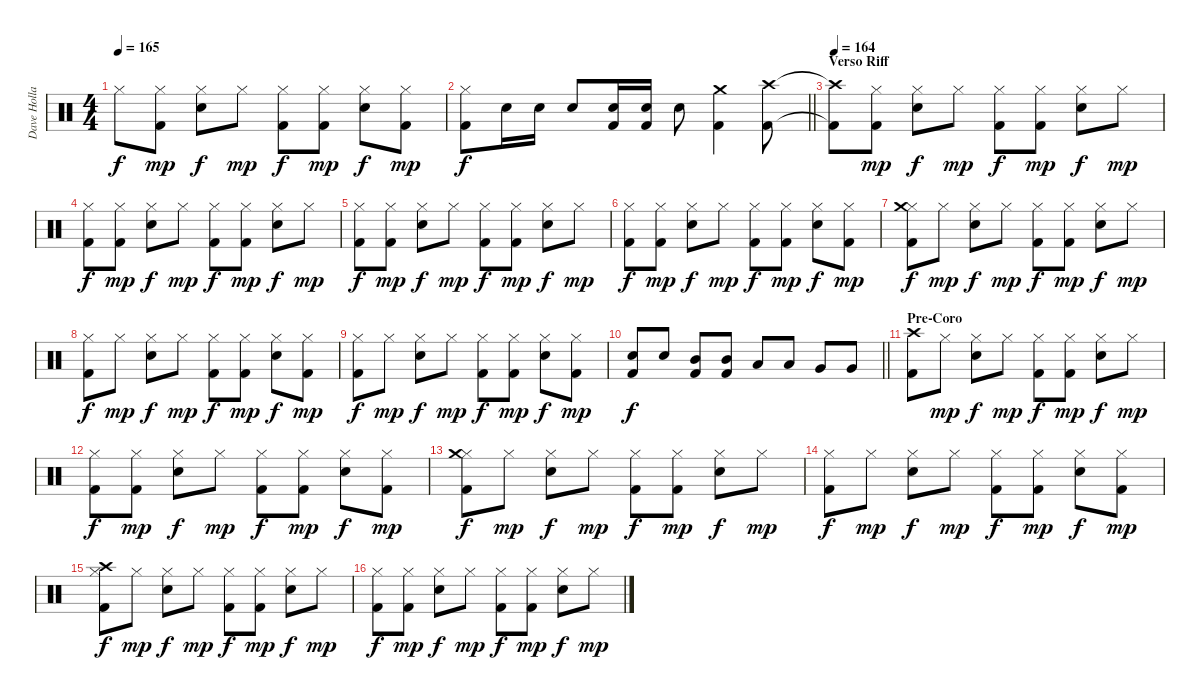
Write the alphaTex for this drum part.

\track ("Dave Holland" "Dave Holla") {instrument percussion}
\staff {score}
\articulation defaults
\ts (4 4)
\tempo 165
\clef neutral
\ks c "Hi-Hat (closed)".8{dy f}
("Hi-Hat (closed)" "Kick (hit) 2").8{dy mp} ("Hi-Hat (closed)" "Snare (hit) 2").8{dy f} "Hi-Hat (closed)".8{dy mp} ("Hi-Hat (closed)" "Kick (hit) 2").8{dy f} ("Hi-Hat (closed)" "Kick (hit) 2").8{dy mp} ("Hi-Hat (closed)" "Snare (hit) 2").8{dy f} ("Hi-Hat (closed)" "Kick (hit) 2").8{dy mp} |
\barLineRight lightlight
("Hi-Hat (closed)" "Kick (hit) 2").8{dy f} "Snare (hit) 2".16 "Snare (hit) 2".16 "Snare (hit) 2".8 ("Snare (hit) 2" "Kick (hit) 2").16 ("Snare (hit) 2" "Kick (hit) 2").16 "Snare (hit) 2".8 ("Crash medium (hit)" "Kick (hit) 2").4 ("Crash high (hit)" "Kick (hit) 2").8 |
\section ("" "Verso Riff")
\tempo 164
("Crash high (hit)"{t} "Kick (hit) 2"{t}).8 ("Hi-Hat (closed)" "Kick (hit) 2").8{dy mp} ("Hi-Hat (closed)" "Snare (hit) 2").8{dy f} "Hi-Hat (closed)".8{dy mp} ("Hi-Hat (closed)" "Kick (hit) 2").8{dy f} ("Hi-Hat (closed)" "Kick (hit) 2").8{dy mp} ("Hi-Hat (closed)" "Snare (hit) 2").8{dy f} "Hi-Hat (closed)".8{dy mp} |
("Hi-Hat (closed)" "Kick (hit) 2").8{dy f} ("Hi-Hat (closed)" "Kick (hit) 2").8{dy mp} ("Hi-Hat (closed)" "Snare (hit) 2").8{dy f} "Hi-Hat (closed)".8{dy mp} ("Hi-Hat (closed)" "Kick (hit) 2").8{dy f} ("Hi-Hat (closed)" "Kick (hit) 2").8{dy mp} ("Hi-Hat (closed)" "Snare (hit) 2").8{dy f} "Hi-Hat (closed)".8{dy mp} |
("Hi-Hat (closed)" "Kick (hit) 2").8{dy f} ("Hi-Hat (closed)" "Kick (hit) 2").8{dy mp} ("Hi-Hat (closed)" "Snare (hit) 2").8{dy f} "Hi-Hat (closed)".8{dy mp} ("Hi-Hat (closed)" "Kick (hit) 2").8{dy f} ("Hi-Hat (closed)" "Kick (hit) 2").8{dy mp} ("Hi-Hat (closed)" "Snare (hit) 2").8{dy f} "Hi-Hat (closed)".8{dy mp} |
("Hi-Hat (closed)" "Kick (hit) 2").8{dy f} ("Hi-Hat (closed)" "Kick (hit) 2").8{dy mp} ("Hi-Hat (closed)" "Snare (hit) 2").8{dy f} "Hi-Hat (closed)".8{dy mp} ("Hi-Hat (closed)" "Kick (hit) 2").8{dy f} ("Hi-Hat (closed)" "Kick (hit) 2").8{dy mp} ("Hi-Hat (closed)" "Snare (hit) 2").8{dy f} ("Hi-Hat (closed)" "Kick (hit) 2").8{dy mp} |
("Hi-Hat (closed)" "Crash medium (hit)" "Kick (hit) 2").8{dy f} "Hi-Hat (closed)".8{dy mp} ("Hi-Hat (closed)" "Snare (hit) 2").8{dy f} "Hi-Hat (closed)".8{dy mp} ("Hi-Hat (closed)" "Kick (hit) 2").8{dy f} ("Hi-Hat (closed)" "Kick (hit) 2").8{dy mp} ("Hi-Hat (closed)" "Snare (hit) 2").8{dy f} "Hi-Hat (closed)".8{dy mp} |
("Hi-Hat (closed)" "Kick (hit) 2").8{dy f} "Hi-Hat (closed)".8{dy mp} ("Hi-Hat (closed)" "Snare (hit) 2").8{dy f} "Hi-Hat (closed)".8{dy mp} ("Hi-Hat (closed)" "Kick (hit) 2").8{dy f} ("Hi-Hat (closed)" "Kick (hit) 2").8{dy mp} ("Hi-Hat (closed)" "Snare (hit) 2").8{dy f} ("Hi-Hat (closed)" "Kick (hit) 2").8{dy mp} |
("Hi-Hat (closed)" "Kick (hit) 2").8{dy f} "Hi-Hat (closed)".8{dy mp} ("Hi-Hat (closed)" "Snare (hit) 2").8{dy f} "Hi-Hat (closed)".8{dy mp} ("Hi-Hat (closed)" "Kick (hit) 2").8{dy f} ("Hi-Hat (closed)" "Kick (hit) 2").8{dy mp} ("Hi-Hat (closed)" "Snare (hit) 2").8{dy f} ("Hi-Hat (closed)" "Kick (hit) 2").8{dy mp} |
\barLineRight lightlight
("Snare (hit) 2" "Kick (hit) 2").8{dy f} "Snare (hit) 2".8 ("Mid Tom (hit)" "Kick (hit) 2").8 ("Mid Tom (hit)" "Kick (hit) 2").8 "Low Tom (hit)".8 "Low Tom (hit)".8 "Very Low Tom (hit)".8 "Very Low Tom (hit)".8 |
\section ("" "Pre-Coro")
("Crash high (hit)" "Kick (hit) 2").8 "Hi-Hat (closed)".8{dy mp} ("Hi-Hat (closed)" "Snare (hit) 2").8{dy f} "Hi-Hat (closed)".8{dy mp} ("Hi-Hat (closed)" "Kick (hit) 2").8{dy f} ("Hi-Hat (closed)" "Kick (hit) 2").8{dy mp} ("Hi-Hat (closed)" "Snare (hit) 2").8{dy f} "Hi-Hat (closed)".8{dy mp} |
("Hi-Hat (closed)" "Kick (hit) 2").8{dy f} ("Hi-Hat (closed)" "Kick (hit) 2").8{dy mp} ("Hi-Hat (closed)" "Snare (hit) 2").8{dy f} "Hi-Hat (closed)".8{dy mp} ("Hi-Hat (closed)" "Kick (hit) 2").8{dy f} ("Hi-Hat (closed)" "Kick (hit) 2").8{dy mp} ("Hi-Hat (closed)" "Snare (hit) 2").8{dy f} ("Hi-Hat (closed)" "Kick (hit) 2").8{dy mp} |
("Hi-Hat (closed)" "Crash medium (hit)" "Kick (hit) 2").8{dy f} "Hi-Hat (closed)".8{dy mp} ("Hi-Hat (closed)" "Snare (hit) 2").8{dy f} "Hi-Hat (closed)".8{dy mp} ("Hi-Hat (closed)" "Kick (hit) 2").8{dy f} ("Hi-Hat (closed)" "Kick (hit) 2").8{dy mp} ("Hi-Hat (closed)" "Snare (hit) 2").8{dy f} "Hi-Hat (closed)".8{dy mp} |
("Hi-Hat (closed)" "Kick (hit) 2").8{dy f} "Hi-Hat (closed)".8{dy mp} ("Hi-Hat (closed)" "Snare (hit) 2").8{dy f} "Hi-Hat (closed)".8{dy mp} ("Hi-Hat (closed)" "Kick (hit) 2").8{dy f} ("Hi-Hat (closed)" "Kick (hit) 2").8{dy mp} ("Hi-Hat (closed)" "Snare (hit) 2").8{dy f} ("Hi-Hat (closed)" "Kick (hit) 2").8{dy mp} |
("Hi-Hat (closed)" "Crash high (hit)" "Kick (hit) 2").8{dy f} "Hi-Hat (closed)".8{dy mp} ("Hi-Hat (closed)" "Snare (hit) 2").8{dy f} "Hi-Hat (closed)".8{dy mp} ("Hi-Hat (closed)" "Kick (hit) 2").8{dy f} ("Hi-Hat (closed)" "Kick (hit) 2").8{dy mp} ("Hi-Hat (closed)" "Snare (hit) 2").8{dy f} "Hi-Hat (closed)".8{dy mp} |
("Hi-Hat (closed)" "Kick (hit) 2").8{dy f} ("Hi-Hat (closed)" "Kick (hit) 2").8{dy mp} ("Hi-Hat (closed)" "Snare (hit) 2").8{dy f} "Hi-Hat (closed)".8{dy mp} ("Hi-Hat (closed)" "Kick (hit) 2").8{dy f} ("Hi-Hat (closed)" "Kick (hit) 2").8{dy mp} ("Hi-Hat (closed)" "Snare (hit) 2").8{dy f} "Hi-Hat (closed)".8{dy mp}
